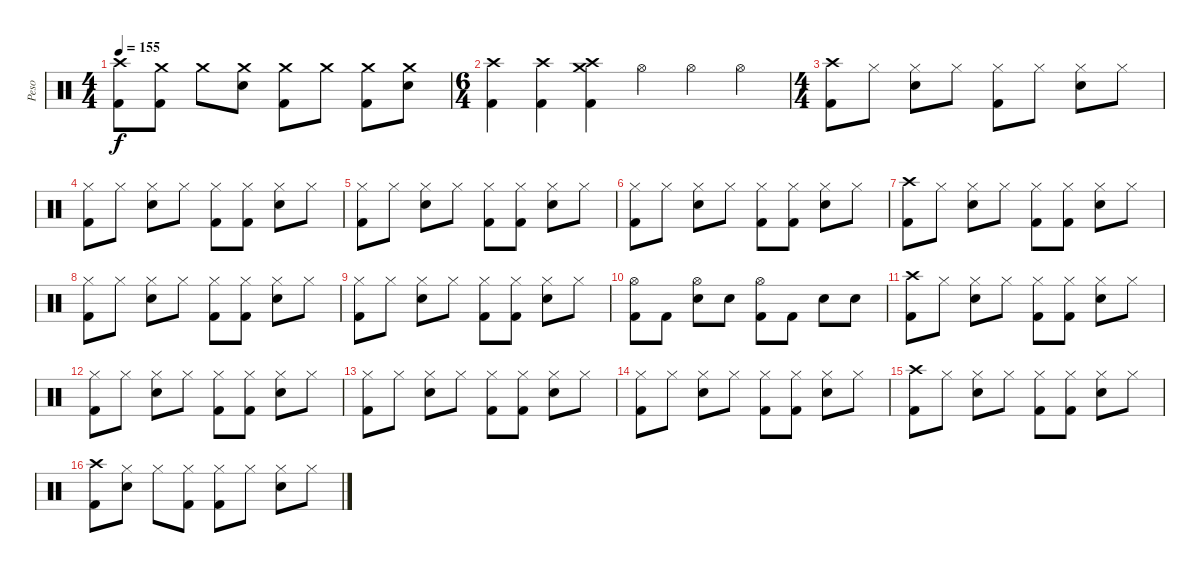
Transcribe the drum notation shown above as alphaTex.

\track ("Peso" "Peso") {instrument percussion}
\staff {score}
\articulation defaults
\ts (4 4)
\tempo 155
\clef neutral
\ks c
("Crash high (hit)" "Kick (hit) 2").8{dy f} ("Crash medium (hit)" "Kick (hit) 2").8 "Crash medium (hit)".8 ("Crash medium (hit)" "Snare (hit) 2").8 ("Crash medium (hit)" "Kick (hit) 2").8 "Crash medium (hit)".8 ("Crash medium (hit)" "Kick (hit) 2").8 ("Crash medium (hit)" "Snare (hit) 2").8 |
\ts (6 4)
("Crash high (hit)" "Kick (hit) 2").4 ("Crash high (hit)" "Kick (hit) 2").4 ("Crash high (hit)" "Crash medium (hit)" "Kick (hit) 2").4 "Hi-Hat (open)".4 "Hi-Hat (open)".4 "Hi-Hat (open)".4 |
\ts (4 4)
("Crash high (hit)" "Kick (hit) 2").8 "Hi-Hat (closed)".8 ("Hi-Hat (closed)" "Snare (hit) 2").8 "Hi-Hat (closed)".8 ("Hi-Hat (closed)" "Kick (hit) 2").8 "Hi-Hat (closed)".8 ("Hi-Hat (closed)" "Snare (hit) 2").8 "Hi-Hat (closed)".8 |
("Hi-Hat (closed)" "Kick (hit) 2").8 "Hi-Hat (closed)".8 ("Hi-Hat (closed)" "Snare (hit) 2").8 "Hi-Hat (closed)".8 ("Hi-Hat (closed)" "Kick (hit) 2").8 ("Hi-Hat (closed)" "Kick (hit) 2").8 ("Hi-Hat (closed)" "Snare (hit) 2").8 "Hi-Hat (closed)".8 |
("Hi-Hat (closed)" "Kick (hit) 2").8 "Hi-Hat (closed)".8 ("Hi-Hat (closed)" "Snare (hit) 2").8 "Hi-Hat (closed)".8 ("Hi-Hat (closed)" "Kick (hit) 2").8 ("Hi-Hat (closed)" "Kick (hit) 2").8 ("Hi-Hat (closed)" "Snare (hit) 2").8 "Hi-Hat (closed)".8 |
("Hi-Hat (closed)" "Kick (hit) 2").8 "Hi-Hat (closed)".8 ("Hi-Hat (closed)" "Snare (hit) 2").8 "Hi-Hat (closed)".8 ("Hi-Hat (closed)" "Kick (hit) 2").8 ("Hi-Hat (closed)" "Kick (hit) 2").8 ("Hi-Hat (closed)" "Snare (hit) 2").8 "Hi-Hat (closed)".8 |
("Crash high (hit)" "Kick (hit) 2").8 "Hi-Hat (closed)".8 ("Hi-Hat (closed)" "Snare (hit) 2").8 "Hi-Hat (closed)".8 ("Hi-Hat (closed)" "Kick (hit) 2").8 ("Hi-Hat (closed)" "Kick (hit) 2").8 ("Hi-Hat (closed)" "Snare (hit) 2").8 "Hi-Hat (closed)".8 |
("Hi-Hat (closed)" "Kick (hit) 2").8 "Hi-Hat (closed)".8 ("Hi-Hat (closed)" "Snare (hit) 2").8 "Hi-Hat (closed)".8 ("Hi-Hat (closed)" "Kick (hit) 2").8 ("Hi-Hat (closed)" "Kick (hit) 2").8 ("Hi-Hat (closed)" "Snare (hit) 2").8 "Hi-Hat (closed)".8 |
("Hi-Hat (closed)" "Kick (hit) 2").8 "Hi-Hat (closed)".8 ("Hi-Hat (closed)" "Snare (hit) 2").8 "Hi-Hat (closed)".8 ("Hi-Hat (closed)" "Kick (hit) 2").8 ("Hi-Hat (closed)" "Kick (hit) 2").8 ("Hi-Hat (closed)" "Snare (hit) 2").8 "Hi-Hat (closed)".8 |
("Hi-Hat (open)" "Kick (hit) 2").8 "Kick (hit) 2".8 ("Hi-Hat (open)" "Snare (hit) 2").8 "Snare (hit)"{x}.8 ("Hi-Hat (open)" "Kick (hit) 2").8 "Kick (hit) 2".8 "Snare (hit) 2".8 "Snare (hit) 2".8 |
("Crash high (hit)" "Kick (hit) 2").8 "Hi-Hat (closed)".8 ("Hi-Hat (closed)" "Snare (hit) 2").8 "Hi-Hat (closed)".8 ("Hi-Hat (closed)" "Kick (hit) 2").8 ("Hi-Hat (closed)" "Kick (hit) 2").8 ("Hi-Hat (closed)" "Snare (hit) 2").8 "Hi-Hat (closed)".8 |
("Hi-Hat (closed)" "Kick (hit) 2").8 "Hi-Hat (closed)".8 ("Hi-Hat (closed)" "Snare (hit) 2").8 "Hi-Hat (closed)".8 ("Hi-Hat (closed)" "Kick (hit) 2").8 ("Hi-Hat (closed)" "Kick (hit) 2").8 ("Hi-Hat (closed)" "Snare (hit) 2").8 "Hi-Hat (closed)".8 |
("Hi-Hat (closed)" "Kick (hit) 2").8 "Hi-Hat (closed)".8 ("Hi-Hat (closed)" "Snare (hit) 2").8 "Hi-Hat (closed)".8 ("Hi-Hat (closed)" "Kick (hit) 2").8 ("Hi-Hat (closed)" "Kick (hit) 2").8 ("Hi-Hat (closed)" "Snare (hit) 2").8 "Hi-Hat (closed)".8 |
("Hi-Hat (closed)" "Kick (hit) 2").8 "Hi-Hat (closed)".8 ("Hi-Hat (closed)" "Snare (hit) 2").8 "Hi-Hat (closed)".8 ("Hi-Hat (closed)" "Kick (hit) 2").8 ("Hi-Hat (closed)" "Kick (hit) 2").8 ("Hi-Hat (closed)" "Snare (hit) 2").8 "Hi-Hat (closed)".8 |
("Crash high (hit)" "Kick (hit) 2").8 "Hi-Hat (closed)".8 ("Hi-Hat (closed)" "Snare (hit) 2").8 "Hi-Hat (closed)".8 ("Hi-Hat (closed)" "Kick (hit) 2").8 ("Hi-Hat (closed)" "Kick (hit) 2").8 ("Hi-Hat (closed)" "Snare (hit) 2").8 "Hi-Hat (closed)".8 |
("Crash high (hit)" "Kick (hit) 2").8 ("Hi-Hat (closed)" "Snare (hit) 2").8 "Hi-Hat (closed)".8 ("Hi-Hat (closed)" "Kick (hit) 2").8 ("Hi-Hat (closed)" "Kick (hit) 2").8 "Hi-Hat (closed)".8 ("Hi-Hat (closed)" "Snare (hit) 2").8 "Hi-Hat (closed)".8
